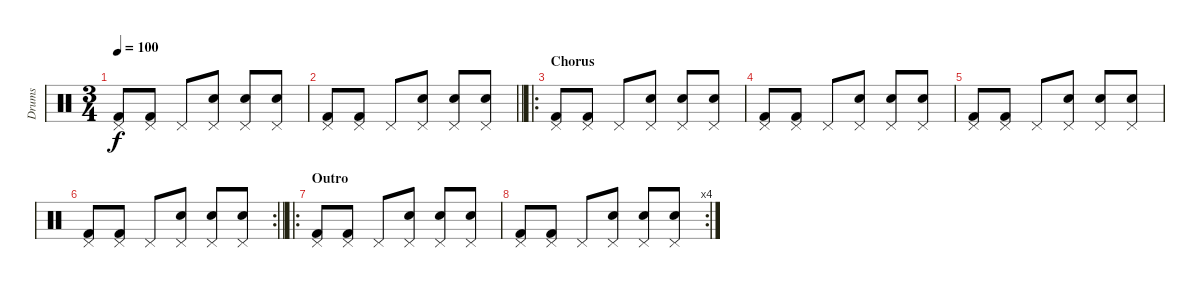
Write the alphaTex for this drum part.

\track ("Drums" "Drums") {instrument percussion}
\staff {score}
\articulation defaults
\ts (3 4)
\tempo 100
\clef neutral
\ks c
("Pedal Hi-Hat (hit)" "Kick (hit) 2").8{dy f} ("Pedal Hi-Hat (hit)" "Kick (hit) 2").8 "Pedal Hi-Hat (hit)".8 ("Pedal Hi-Hat (hit)" "Electric Snare (hit)").8 ("Pedal Hi-Hat (hit)" "Snare (hit) 2").8 ("Pedal Hi-Hat (hit)" "Snare (hit) 2").8 |
\barLineRight lightlight
("Pedal Hi-Hat (hit)" "Kick (hit) 2").8 ("Pedal Hi-Hat (hit)" "Kick (hit) 2").8 "Pedal Hi-Hat (hit)".8 ("Pedal Hi-Hat (hit)" "Electric Snare (hit)").8 ("Pedal Hi-Hat (hit)" "Snare (hit) 2").8 ("Pedal Hi-Hat (hit)" "Snare (hit) 2").8 |
\ro
\section ("" "Chorus")
("Pedal Hi-Hat (hit)" "Kick (hit) 2").8 ("Pedal Hi-Hat (hit)" "Kick (hit) 2").8 "Pedal Hi-Hat (hit)".8 ("Pedal Hi-Hat (hit)" "Electric Snare (hit)").8 ("Pedal Hi-Hat (hit)" "Snare (hit) 2").8 ("Pedal Hi-Hat (hit)" "Snare (hit) 2").8 |
("Pedal Hi-Hat (hit)" "Kick (hit) 2").8 ("Pedal Hi-Hat (hit)" "Kick (hit) 2").8 "Pedal Hi-Hat (hit)".8 ("Pedal Hi-Hat (hit)" "Electric Snare (hit)").8 ("Pedal Hi-Hat (hit)" "Snare (hit) 2").8 ("Pedal Hi-Hat (hit)" "Snare (hit) 2").8 |
("Pedal Hi-Hat (hit)" "Kick (hit) 2").8 ("Pedal Hi-Hat (hit)" "Kick (hit) 2").8 "Pedal Hi-Hat (hit)".8 ("Pedal Hi-Hat (hit)" "Electric Snare (hit)").8 ("Pedal Hi-Hat (hit)" "Snare (hit) 2").8 ("Pedal Hi-Hat (hit)" "Snare (hit) 2").8 |
\rc 2
\barLineRight lightlight
("Pedal Hi-Hat (hit)" "Kick (hit) 2").8 ("Pedal Hi-Hat (hit)" "Kick (hit) 2").8 "Pedal Hi-Hat (hit)".8 ("Pedal Hi-Hat (hit)" "Electric Snare (hit)").8 ("Pedal Hi-Hat (hit)" "Snare (hit) 2").8 ("Pedal Hi-Hat (hit)" "Snare (hit) 2").8 |
\ro
\section ("" "Outro")
("Pedal Hi-Hat (hit)" "Kick (hit) 2").8 ("Pedal Hi-Hat (hit)" "Kick (hit) 2").8 "Pedal Hi-Hat (hit)".8 ("Pedal Hi-Hat (hit)" "Electric Snare (hit)").8 ("Pedal Hi-Hat (hit)" "Snare (hit) 2").8 ("Pedal Hi-Hat (hit)" "Snare (hit) 2").8 |
\rc 4
("Pedal Hi-Hat (hit)" "Kick (hit) 2").8 ("Pedal Hi-Hat (hit)" "Kick (hit) 2").8 "Pedal Hi-Hat (hit)".8 ("Pedal Hi-Hat (hit)" "Electric Snare (hit)").8 ("Pedal Hi-Hat (hit)" "Snare (hit) 2").8 ("Pedal Hi-Hat (hit)" "Snare (hit) 2").8
